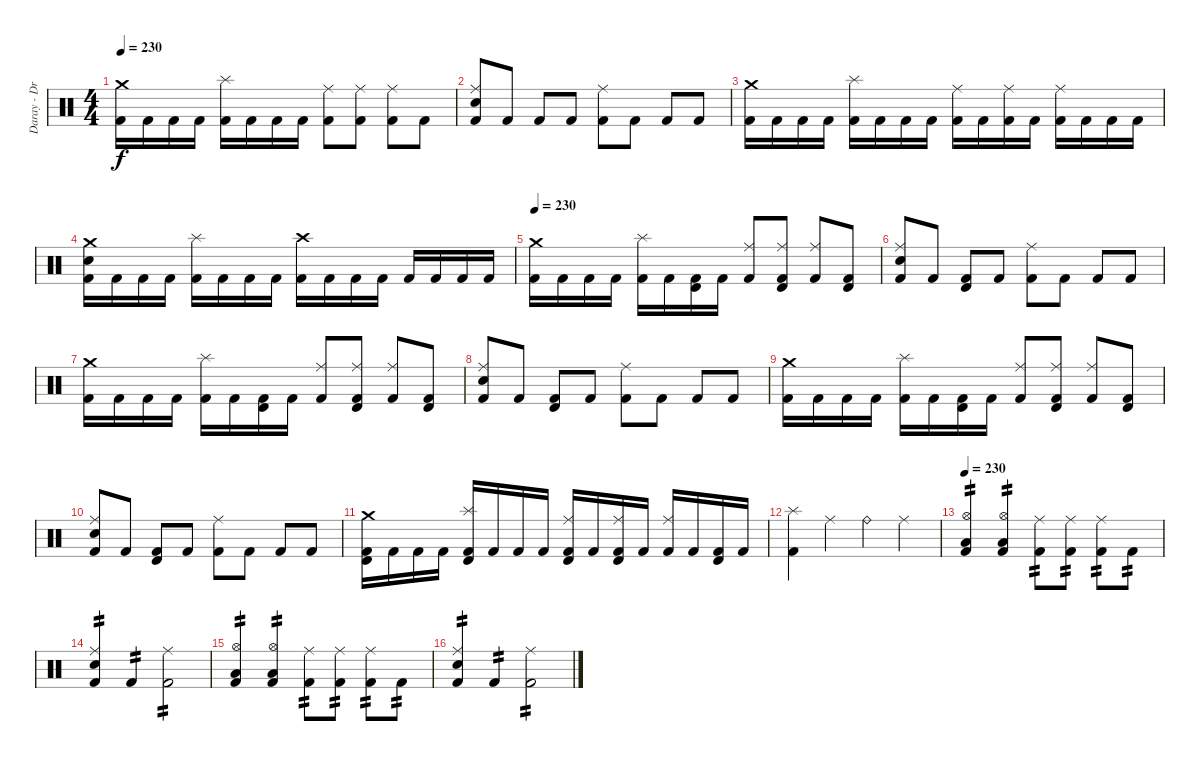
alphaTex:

\track ("Daray - Drums" "Daray - Dr") {instrument percussion}
\staff {score}
\articulation defaults
\ts (4 4)
\tempo 230
\clef neutral
\ks c
("Crash medium (hit)" "Kick (hit) 2").16{dy f} "Kick (hit) 2".16 "Kick (hit) 2".16 "Kick (hit) 2".16 ("Splash (hit)" "Kick (hit) 2").16 "Kick (hit) 2".16 "Kick (hit) 2".16 "Kick (hit) 2".16 ("Ride (middle)" "Kick (hit) 2").8 ("Ride (middle)" "Kick (hit) 2").8 ("Ride (middle)" "Kick (hit) 2").8 "Kick (hit) 2".8 |
("Ride (middle)" "Electric Snare (hit)" "Kick (hit) 2").8 "Kick (hit) 2".8 "Kick (hit) 2".8 "Kick (hit) 2".8 ("Ride (middle)" "Kick (hit) 2").8 "Kick (hit) 2".8 "Kick (hit) 2".8 "Kick (hit) 2".8 |
("Crash medium (hit)" "Kick (hit) 2").16 "Kick (hit) 2".16 "Kick (hit) 2".16 "Kick (hit) 2".16 ("Splash (hit)" "Kick (hit) 2").16 "Kick (hit) 2".16 "Kick (hit) 2".16 "Kick (hit) 2".16 ("Ride (middle)" "Kick (hit) 2").16 "Kick (hit) 2".16 ("Ride (middle)" "Kick (hit) 2").16 "Kick (hit) 2".16 ("Ride (middle)" "Kick (hit) 2").16 "Kick (hit) 2".16 "Kick (hit) 2".16 "Kick (hit) 2".16 |
("Crash medium (hit)" "Electric Snare (hit)" "Kick (hit) 2").16 "Kick (hit) 2".16 "Kick (hit) 2".16 "Kick (hit) 2".16 ("Splash (hit)" "Kick (hit) 2").16 "Kick (hit) 2".16 "Kick (hit) 2".16 "Kick (hit) 2".16 ("Crash high (hit)" "Kick (hit) 2").16 "Kick (hit) 2".16 "Kick (hit) 2".16 "Kick (hit) 2".16 "Kick (hit) 2".16 "Kick (hit) 2".16 "Kick (hit) 2".16 "Kick (hit) 2".16 |
\tempo 230
("Crash medium (hit)" "Kick (hit) 2").16 "Kick (hit) 2".16 "Kick (hit) 2".16 "Kick (hit) 2".16 ("Splash (hit)" "Kick (hit) 2").16 "Kick (hit) 2".16 ("Timbale high (hit)" "Kick (hit) 2").16 "Kick (hit) 2".16 ("Ride (middle)" "Kick (hit) 2").8 ("Ride (middle)" "Timbale high (hit)" "Kick (hit) 2").8 ("Ride (middle)" "Kick (hit) 2").8 ("Timbale high (hit)" "Kick (hit) 2").8 |
("Ride (middle)" "Electric Snare (hit)" "Kick (hit) 2").8 "Kick (hit) 2".8 ("Timbale high (hit)" "Kick (hit) 2").8 "Kick (hit) 2".8 ("Ride (middle)" "Kick (hit) 2").8 "Kick (hit) 2".8 "Kick (hit) 2".8 "Kick (hit) 2".8 |
("Crash medium (hit)" "Kick (hit) 2").16 "Kick (hit) 2".16 "Kick (hit) 2".16 "Kick (hit) 2".16 ("Splash (hit)" "Kick (hit) 2").16 "Kick (hit) 2".16 ("Timbale high (hit)" "Kick (hit) 2").16 "Kick (hit) 2".16 ("Ride (middle)" "Kick (hit) 2").8 ("Ride (middle)" "Timbale high (hit)" "Kick (hit) 2").8 ("Ride (middle)" "Kick (hit) 2").8 ("Timbale high (hit)" "Kick (hit) 2").8 |
("Ride (middle)" "Electric Snare (hit)" "Kick (hit) 2").8 "Kick (hit) 2".8 ("Timbale high (hit)" "Kick (hit) 2").8 "Kick (hit) 2".8 ("Ride (middle)" "Kick (hit) 2").8 "Kick (hit) 2".8 "Kick (hit) 2".8 "Kick (hit) 2".8 |
("Crash medium (hit)" "Kick (hit) 2").16 "Kick (hit) 2".16 "Kick (hit) 2".16 "Kick (hit) 2".16 ("Splash (hit)" "Kick (hit) 2").16 "Kick (hit) 2".16 ("Timbale high (hit)" "Kick (hit) 2").16 "Kick (hit) 2".16 ("Ride (middle)" "Kick (hit) 2").8 ("Ride (middle)" "Timbale high (hit)" "Kick (hit) 2").8 ("Ride (middle)" "Kick (hit) 2").8 ("Timbale high (hit)" "Kick (hit) 2").8 |
("Ride (middle)" "Electric Snare (hit)" "Kick (hit) 2").8 "Kick (hit) 2".8 ("Timbale high (hit)" "Kick (hit) 2").8 "Kick (hit) 2".8 ("Ride (middle)" "Kick (hit) 2").8 "Kick (hit) 2".8 "Kick (hit) 2".8 "Kick (hit) 2".8 |
("Crash medium (hit)" "Timbale high (hit)" "Kick (hit) 2").16 "Kick (hit) 2".16 "Kick (hit) 2".16 "Kick (hit) 2".16 ("Splash (hit)" "Timbale high (hit)" "Kick (hit) 2").16 "Kick (hit) 2".16 "Kick (hit) 2".16 "Kick (hit) 2".16 ("Ride (middle)" "Timbale high (hit)" "Kick (hit) 2").16 "Kick (hit) 2".16 ("Ride (middle)" "Timbale high (hit)" "Kick (hit) 2").16 "Kick (hit) 2".16 ("Ride (middle)" "Kick (hit) 2").16 "Kick (hit) 2".16 ("Timbale high (hit)" "Kick (hit) 2").16 "Kick (hit) 2".16 |
("Splash (hit)" "Kick (hit) 2").4 "Ride (middle)".4 "Ride (bell)".4 "Ride (middle)".4 |
\tempo 230
("Hi-Hat (open)" "Low Floor Tom (hit)" "Kick (hit) 2").4{tp 2} ("Hi-Hat (open)" "Low Floor Tom (hit)" "Kick (hit) 2").4{tp 2} ("Ride (middle)" "Kick (hit) 2").8{tp 2} ("Ride (middle)" "Kick (hit) 2").8{tp 2} ("Ride (middle)" "Kick (hit) 2").8{tp 2} "Kick (hit) 2".8{tp 2} |
("Ride (middle)" "Electric Snare (hit)" "Kick (hit) 2").4{tp 2} "Kick (hit) 2".4{tp 2} ("Ride (middle)" "Kick (hit) 2").2{tp 2} |
("Hi-Hat (open)" "Low Floor Tom (hit)" "Kick (hit) 2").4{tp 2} ("Hi-Hat (open)" "Low Floor Tom (hit)" "Kick (hit) 2").4{tp 2} ("Ride (middle)" "Kick (hit) 2").8{tp 2} ("Ride (middle)" "Kick (hit) 2").8{tp 2} ("Ride (middle)" "Kick (hit) 2").8{tp 2} "Kick (hit) 2".8{tp 2} |
("Ride (middle)" "Electric Snare (hit)" "Kick (hit) 2").4{tp 2} "Kick (hit) 2".4{tp 2} ("Ride (middle)" "Kick (hit) 2").2{tp 2}
